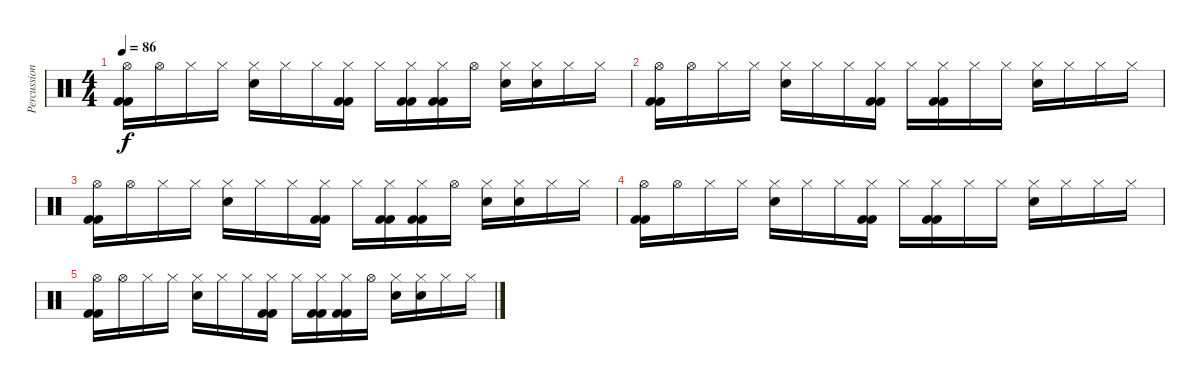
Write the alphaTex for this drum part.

\track ("Percussion" "Percussion") {instrument percussion}
\staff {score}
\articulation defaults
\ts (4 4)
\tempo 86
\clef neutral
\ks c
("Hi-Hat (open)" "Kick (hit) 2" "Kick (hit) 2").16{dy f} "Hi-Hat (open)".16 "Hi-Hat (closed)".16 "Hi-Hat (closed)".16 ("Hi-Hat (closed)" "Electric Snare (hit)").16 "Hi-Hat (closed)".16 "Hi-Hat (closed)".16 ("Hi-Hat (closed)" "Kick (hit) 2" "Kick (hit) 2").16 "Hi-Hat (closed)".16 ("Hi-Hat (closed)" "Kick (hit) 2" "Kick (hit) 2").16 ("Hi-Hat (closed)" "Kick (hit) 2" "Kick (hit) 2").16 "Hi-Hat (open)".16 ("Hi-Hat (closed)" "Electric Snare (hit)").16 ("Hi-Hat (closed)" "Electric Snare (hit)").16 "Hi-Hat (closed)".16 "Hi-Hat (closed)".16 |
("Hi-Hat (open)" "Kick (hit) 2" "Kick (hit) 2").16 "Hi-Hat (open)".16 "Hi-Hat (closed)".16 "Hi-Hat (closed)".16 ("Hi-Hat (closed)" "Electric Snare (hit)").16 "Hi-Hat (closed)".16 "Hi-Hat (closed)".16 ("Hi-Hat (closed)" "Kick (hit) 2" "Kick (hit) 2").16 "Hi-Hat (closed)".16 ("Hi-Hat (closed)" "Kick (hit) 2" "Kick (hit) 2").16 "Hi-Hat (closed)".16 "Hi-Hat (closed)".16 ("Hi-Hat (closed)" "Electric Snare (hit)").16 "Hi-Hat (closed)".16 "Hi-Hat (closed)".16 "Hi-Hat (closed)".16 |
("Hi-Hat (open)" "Kick (hit) 2" "Kick (hit) 2").16 "Hi-Hat (open)".16 "Hi-Hat (closed)".16 "Hi-Hat (closed)".16 ("Hi-Hat (closed)" "Electric Snare (hit)").16 "Hi-Hat (closed)".16 "Hi-Hat (closed)".16 ("Hi-Hat (closed)" "Kick (hit) 2" "Kick (hit) 2").16 "Hi-Hat (closed)".16 ("Hi-Hat (closed)" "Kick (hit) 2" "Kick (hit) 2").16 ("Hi-Hat (closed)" "Kick (hit) 2" "Kick (hit) 2").16 "Hi-Hat (open)".16 ("Hi-Hat (closed)" "Electric Snare (hit)").16 ("Hi-Hat (closed)" "Electric Snare (hit)").16 "Hi-Hat (closed)".16 "Hi-Hat (closed)".16 |
("Hi-Hat (open)" "Kick (hit) 2" "Kick (hit) 2").16 "Hi-Hat (open)".16 "Hi-Hat (closed)".16 "Hi-Hat (closed)".16 ("Hi-Hat (closed)" "Electric Snare (hit)").16 "Hi-Hat (closed)".16 "Hi-Hat (closed)".16 ("Hi-Hat (closed)" "Kick (hit) 2" "Kick (hit) 2").16 "Hi-Hat (closed)".16 ("Hi-Hat (closed)" "Kick (hit) 2" "Kick (hit) 2").16 "Hi-Hat (closed)".16 "Hi-Hat (closed)".16 ("Hi-Hat (closed)" "Electric Snare (hit)").16 "Hi-Hat (closed)".16 "Hi-Hat (closed)".16 "Hi-Hat (closed)".16 |
("Hi-Hat (open)" "Kick (hit) 2" "Kick (hit) 2").16 "Hi-Hat (open)".16 "Hi-Hat (closed)".16 "Hi-Hat (closed)".16 ("Hi-Hat (closed)" "Electric Snare (hit)").16 "Hi-Hat (closed)".16 "Hi-Hat (closed)".16 ("Hi-Hat (closed)" "Kick (hit) 2" "Kick (hit) 2").16 "Hi-Hat (closed)".16 ("Hi-Hat (closed)" "Kick (hit) 2" "Kick (hit) 2").16 ("Hi-Hat (closed)" "Kick (hit) 2" "Kick (hit) 2").16 "Hi-Hat (open)".16 ("Hi-Hat (closed)" "Electric Snare (hit)").16 ("Hi-Hat (closed)" "Electric Snare (hit)").16 "Hi-Hat (closed)".16 "Hi-Hat (closed)".16
